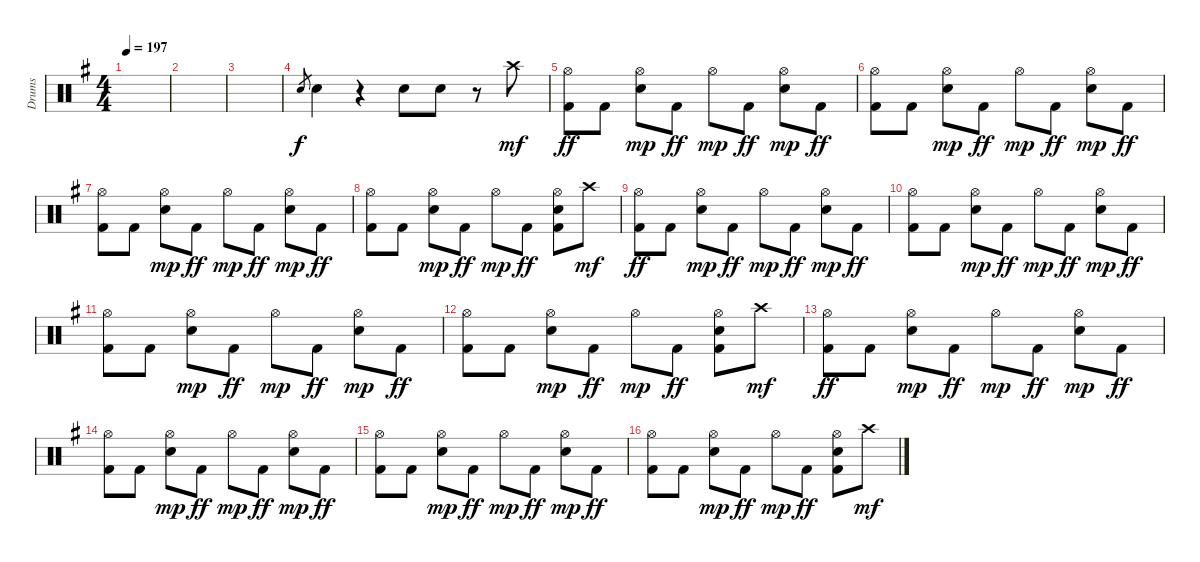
\track ("Drums" "Drums") {instrument percussion}
\staff {score}
\articulation defaults
\ts (4 4)
\tempo 197
\clef neutral
\ks g
|
|
|
"Snare (hit) 2".8{gr} "Snare (hit) 2".4 r.4 "Snare (hit) 2".8 "Snare (hit) 2".8 r.8 "Crash high (hit)".8{dy mf} |
("Hi-Hat (open)" "Kick (hit) 2").8{dy ff} "Kick (hit) 2".8 ("Hi-Hat (open)" "Snare (hit) 2").8{dy mp} "Kick (hit) 2".8{dy ff} "Hi-Hat (open)".8{dy mp} "Kick (hit) 2".8{dy ff} ("Hi-Hat (open)" "Snare (hit) 2").8{dy mp} "Kick (hit) 2".8{dy ff} |
("Hi-Hat (open)" "Kick (hit) 2").8 "Kick (hit) 2".8 ("Hi-Hat (open)" "Snare (hit) 2").8{dy mp} "Kick (hit) 2".8{dy ff} "Hi-Hat (open)".8{dy mp} "Kick (hit) 2".8{dy ff} ("Hi-Hat (open)" "Snare (hit) 2").8{dy mp} "Kick (hit) 2".8{dy ff} |
("Hi-Hat (open)" "Kick (hit) 2").8 "Kick (hit) 2".8 ("Hi-Hat (open)" "Snare (hit) 2").8{dy mp} "Kick (hit) 2".8{dy ff} "Hi-Hat (open)".8{dy mp} "Kick (hit) 2".8{dy ff} ("Hi-Hat (open)" "Snare (hit) 2").8{dy mp} "Kick (hit) 2".8{dy ff} |
("Hi-Hat (open)" "Kick (hit) 2").8 "Kick (hit) 2".8 ("Hi-Hat (open)" "Snare (hit) 2").8{dy mp} "Kick (hit) 2".8{dy ff} "Hi-Hat (open)".8{dy mp} "Kick (hit) 2".8{dy ff} ("Hi-Hat (open)" "Snare (hit) 2" "Kick (hit) 2").8 "Crash high (hit)".8{dy mf} |
("Hi-Hat (open)" "Kick (hit) 2").8{dy ff} "Kick (hit) 2".8 ("Hi-Hat (open)" "Snare (hit) 2").8{dy mp} "Kick (hit) 2".8{dy ff} "Hi-Hat (open)".8{dy mp} "Kick (hit) 2".8{dy ff} ("Hi-Hat (open)" "Snare (hit) 2").8{dy mp} "Kick (hit) 2".8{dy ff} |
("Hi-Hat (open)" "Kick (hit) 2").8 "Kick (hit) 2".8 ("Hi-Hat (open)" "Snare (hit) 2").8{dy mp} "Kick (hit) 2".8{dy ff} "Hi-Hat (open)".8{dy mp} "Kick (hit) 2".8{dy ff} ("Hi-Hat (open)" "Snare (hit) 2").8{dy mp} "Kick (hit) 2".8{dy ff} |
("Hi-Hat (open)" "Kick (hit) 2").8 "Kick (hit) 2".8 ("Hi-Hat (open)" "Snare (hit) 2").8{dy mp} "Kick (hit) 2".8{dy ff} "Hi-Hat (open)".8{dy mp} "Kick (hit) 2".8{dy ff} ("Hi-Hat (open)" "Snare (hit) 2").8{dy mp} "Kick (hit) 2".8{dy ff} |
("Hi-Hat (open)" "Kick (hit) 2").8 "Kick (hit) 2".8 ("Hi-Hat (open)" "Snare (hit) 2").8{dy mp} "Kick (hit) 2".8{dy ff} "Hi-Hat (open)".8{dy mp} "Kick (hit) 2".8{dy ff} ("Hi-Hat (open)" "Snare (hit) 2" "Kick (hit) 2").8 "Crash high (hit)".8{dy mf} |
("Hi-Hat (open)" "Kick (hit) 2").8{dy ff} "Kick (hit) 2".8 ("Hi-Hat (open)" "Snare (hit) 2").8{dy mp} "Kick (hit) 2".8{dy ff} "Hi-Hat (open)".8{dy mp} "Kick (hit) 2".8{dy ff} ("Hi-Hat (open)" "Snare (hit) 2").8{dy mp} "Kick (hit) 2".8{dy ff} |
("Hi-Hat (open)" "Kick (hit) 2").8 "Kick (hit) 2".8 ("Hi-Hat (open)" "Snare (hit) 2").8{dy mp} "Kick (hit) 2".8{dy ff} "Hi-Hat (open)".8{dy mp} "Kick (hit) 2".8{dy ff} ("Hi-Hat (open)" "Snare (hit) 2").8{dy mp} "Kick (hit) 2".8{dy ff} |
("Hi-Hat (open)" "Kick (hit) 2").8 "Kick (hit) 2".8 ("Hi-Hat (open)" "Snare (hit) 2").8{dy mp} "Kick (hit) 2".8{dy ff} "Hi-Hat (open)".8{dy mp} "Kick (hit) 2".8{dy ff} ("Hi-Hat (open)" "Snare (hit) 2").8{dy mp} "Kick (hit) 2".8{dy ff} |
("Hi-Hat (open)" "Kick (hit) 2").8 "Kick (hit) 2".8 ("Hi-Hat (open)" "Snare (hit) 2").8{dy mp} "Kick (hit) 2".8{dy ff} "Hi-Hat (open)".8{dy mp} "Kick (hit) 2".8{dy ff} ("Hi-Hat (open)" "Snare (hit) 2" "Kick (hit) 2").8 "Crash high (hit)".8{dy mf}
